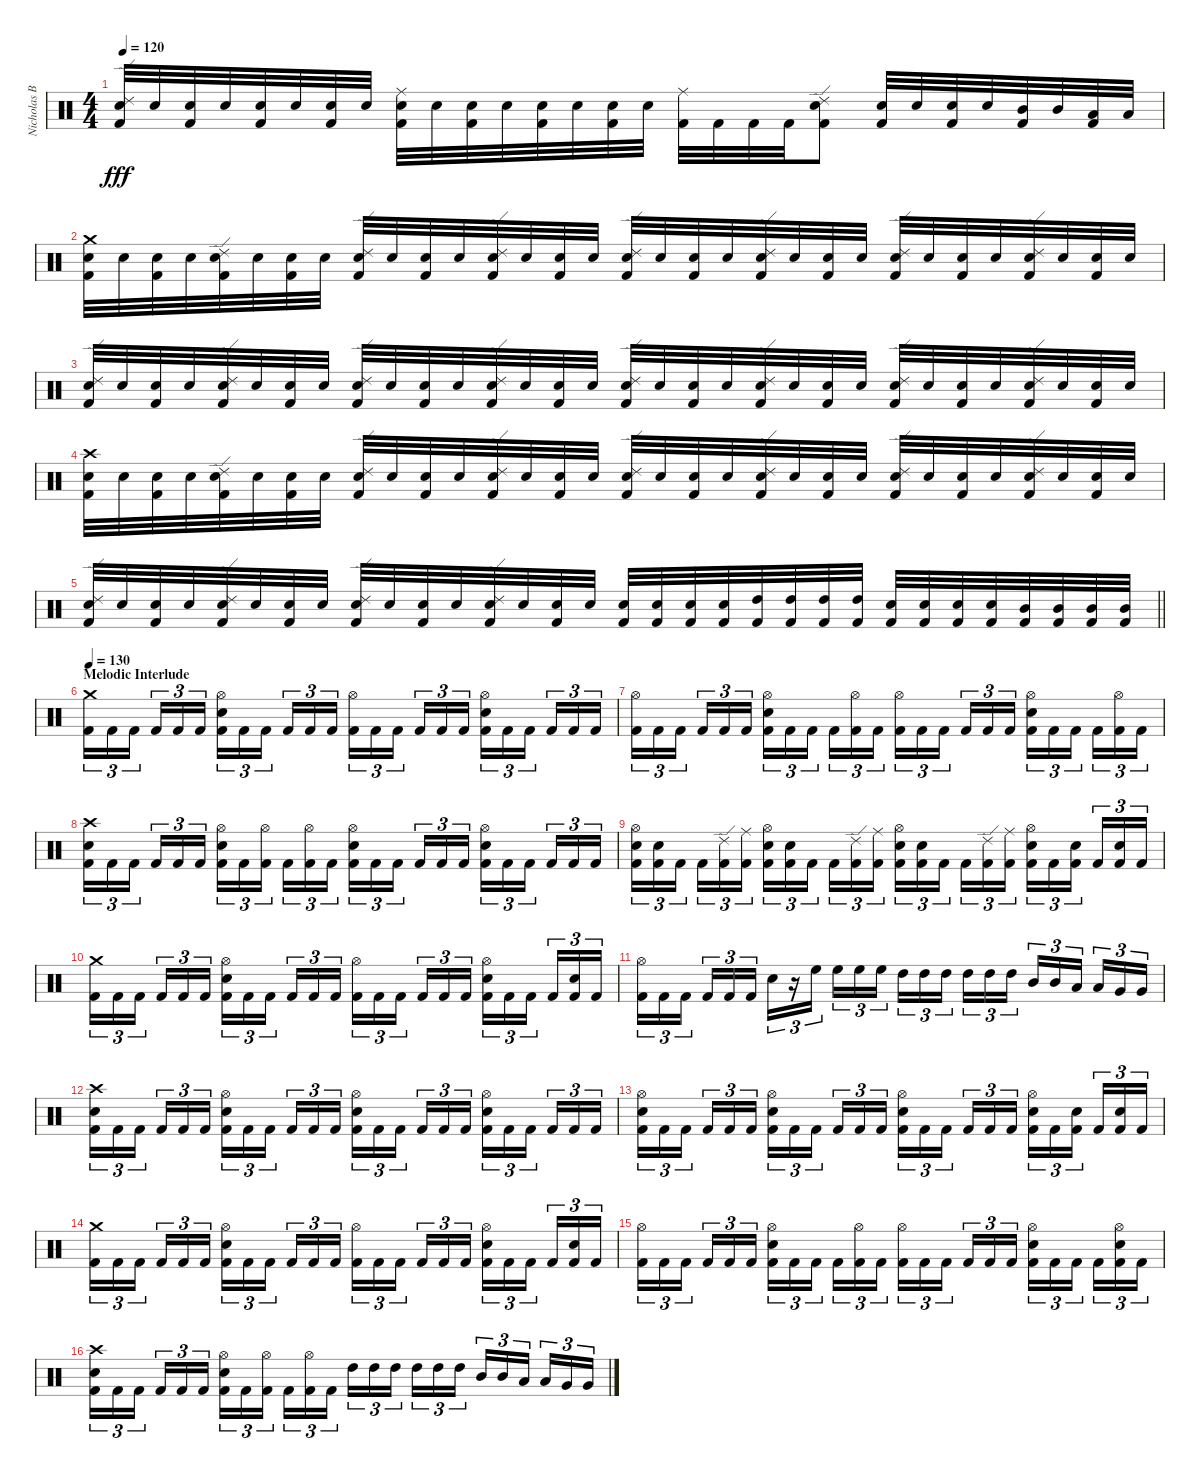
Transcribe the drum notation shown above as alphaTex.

\track ("Nicholas Barker" "Nicholas B") {instrument percussion}
\staff {score}
\articulation defaults
\ts (4 4)
\tempo 120
\clef neutral
\ks c
("Ride (edge) 2" "Snare (hit) 2" "Kick (hit) 2").32{dy fff} "Snare (hit) 2".32 ("Snare (hit) 2" "Kick (hit) 2").32 "Snare (hit) 2".32 ("Snare (hit) 2" "Kick (hit) 2").32 "Snare (hit) 2".32 ("Snare (hit) 2" "Kick (hit) 2").32 "Snare (hit) 2".32 ("Ride (middle)" "Snare (hit) 2" "Kick (hit) 2").32 "Snare (hit) 2".32 ("Snare (hit) 2" "Kick (hit) 2").32 "Snare (hit) 2".32 ("Snare (hit) 2" "Kick (hit) 2").32 "Snare (hit) 2".32 ("Snare (hit) 2" "Kick (hit) 2").32 "Snare (hit) 2".32 ("Ride (middle)" "Kick (hit) 2").32 "Kick (hit) 2".32 "Kick (hit) 2".32 "Kick (hit) 2".32 ("Ride (edge) 2" "Snare (hit) 2" "Kick (hit) 2").8 ("Snare (hit) 2" "Kick (hit) 2").32 "Snare (hit) 2".32 ("Snare (hit) 2" "Kick (hit) 2").32 "Snare (hit) 2".32 ("Mid Tom (hit)" "Kick (hit) 2").32 "Mid Tom (hit)".32 ("Low Tom (hit)" "Kick (hit) 2").32 "Low Tom (hit)".32 |
("Crash medium (hit)" "Snare (hit) 2" "Kick (hit) 2").32 "Snare (hit) 2".32 ("Snare (hit) 2" "Kick (hit) 2").32 "Snare (hit) 2".32 ("Ride (edge) 2" "Snare (hit) 2" "Kick (hit) 2").32 "Snare (hit) 2".32 ("Snare (hit) 2" "Kick (hit) 2").32 "Snare (hit) 2".32 ("Ride (edge) 2" "Snare (hit) 2" "Kick (hit) 2").32 "Snare (hit) 2".32 ("Snare (hit) 2" "Kick (hit) 2").32 "Snare (hit) 2".32 ("Ride (edge) 2" "Snare (hit) 2" "Kick (hit) 2").32 "Snare (hit) 2".32 ("Snare (hit) 2" "Kick (hit) 2").32 "Snare (hit) 2".32 ("Ride (edge) 2" "Snare (hit) 2" "Kick (hit) 2").32 "Snare (hit) 2".32 ("Snare (hit) 2" "Kick (hit) 2").32 "Snare (hit) 2".32 ("Ride (edge) 2" "Snare (hit) 2" "Kick (hit) 2").32 "Snare (hit) 2".32 ("Snare (hit) 2" "Kick (hit) 2").32 "Snare (hit) 2".32 ("Ride (edge) 2" "Snare (hit) 2" "Kick (hit) 2").32 "Snare (hit) 2".32 ("Snare (hit) 2" "Kick (hit) 2").32 "Snare (hit) 2".32 ("Ride (edge) 2" "Snare (hit) 2" "Kick (hit) 2").32 "Snare (hit) 2".32 ("Snare (hit) 2" "Kick (hit) 2").32 "Snare (hit) 2".32 |
("Ride (edge) 2" "Snare (hit) 2" "Kick (hit) 2").32 "Snare (hit) 2".32 ("Snare (hit) 2" "Kick (hit) 2").32 "Snare (hit) 2".32 ("Ride (edge) 2" "Snare (hit) 2" "Kick (hit) 2").32 "Snare (hit) 2".32 ("Snare (hit) 2" "Kick (hit) 2").32 "Snare (hit) 2".32 ("Ride (edge) 2" "Snare (hit) 2" "Kick (hit) 2").32 "Snare (hit) 2".32 ("Snare (hit) 2" "Kick (hit) 2").32 "Snare (hit) 2".32 ("Ride (edge) 2" "Snare (hit) 2" "Kick (hit) 2").32 "Snare (hit) 2".32 ("Snare (hit) 2" "Kick (hit) 2").32 "Snare (hit) 2".32 ("Ride (edge) 2" "Snare (hit) 2" "Kick (hit) 2").32 "Snare (hit) 2".32 ("Snare (hit) 2" "Kick (hit) 2").32 "Snare (hit) 2".32 ("Ride (edge) 2" "Snare (hit) 2" "Kick (hit) 2").32 "Snare (hit) 2".32 ("Snare (hit) 2" "Kick (hit) 2").32 "Snare (hit) 2".32 ("Ride (edge) 2" "Snare (hit) 2" "Kick (hit) 2").32 "Snare (hit) 2".32 ("Snare (hit) 2" "Kick (hit) 2").32 "Snare (hit) 2".32 ("Ride (edge) 2" "Snare (hit) 2" "Kick (hit) 2").32 "Snare (hit) 2".32 ("Snare (hit) 2" "Kick (hit) 2").32 "Snare (hit) 2".32 |
("Crash high (hit)" "Snare (hit) 2" "Kick (hit) 2").32 "Snare (hit) 2".32 ("Snare (hit) 2" "Kick (hit) 2").32 "Snare (hit) 2".32 ("Ride (edge) 2" "Snare (hit) 2" "Kick (hit) 2").32 "Snare (hit) 2".32 ("Snare (hit) 2" "Kick (hit) 2").32 "Snare (hit) 2".32 ("Ride (edge) 2" "Snare (hit) 2" "Kick (hit) 2").32 "Snare (hit) 2".32 ("Snare (hit) 2" "Kick (hit) 2").32 "Snare (hit) 2".32 ("Ride (edge) 2" "Snare (hit) 2" "Kick (hit) 2").32 "Snare (hit) 2".32 ("Snare (hit) 2" "Kick (hit) 2").32 "Snare (hit) 2".32 ("Ride (edge) 2" "Snare (hit) 2" "Kick (hit) 2").32 "Snare (hit) 2".32 ("Snare (hit) 2" "Kick (hit) 2").32 "Snare (hit) 2".32 ("Ride (edge) 2" "Snare (hit) 2" "Kick (hit) 2").32 "Snare (hit) 2".32 ("Snare (hit) 2" "Kick (hit) 2").32 "Snare (hit) 2".32 ("Ride (edge) 2" "Snare (hit) 2" "Kick (hit) 2").32 "Snare (hit) 2".32 ("Snare (hit) 2" "Kick (hit) 2").32 "Snare (hit) 2".32 ("Ride (edge) 2" "Snare (hit) 2" "Kick (hit) 2").32 "Snare (hit) 2".32 ("Snare (hit) 2" "Kick (hit) 2").32 "Snare (hit) 2".32 |
\barLineRight lightlight
("Ride (edge) 2" "Snare (hit) 2" "Kick (hit) 2").32 "Snare (hit) 2".32 ("Snare (hit) 2" "Kick (hit) 2").32 "Snare (hit) 2".32 ("Ride (edge) 2" "Snare (hit) 2" "Kick (hit) 2").32 "Snare (hit) 2".32 ("Snare (hit) 2" "Kick (hit) 2").32 "Snare (hit) 2".32 ("Ride (edge) 2" "Snare (hit) 2" "Kick (hit) 2").32 "Snare (hit) 2".32 ("Snare (hit) 2" "Kick (hit) 2").32 "Snare (hit) 2".32 ("Ride (edge) 2" "Snare (hit) 2" "Kick (hit) 2").32 "Snare (hit) 2".32 ("Snare (hit) 2" "Kick (hit) 2").32 "Snare (hit) 2".32 ("Snare (hit) 2" "Kick (hit) 2").32 ("Snare (hit) 2" "Kick (hit) 2").32 ("Snare (hit) 2" "Kick (hit) 2").32 ("Snare (hit) 2" "Kick (hit) 2").32 ("High Tom (hit)" "Kick (hit) 2").32 ("High Tom (hit)" "Kick (hit) 2").32 ("High Tom (hit)" "Kick (hit) 2").32 ("High Tom (hit)" "Kick (hit) 2").32 ("Snare (hit) 2" "Kick (hit) 2").32 ("Snare (hit) 2" "Kick (hit) 2").32 ("Snare (hit) 2" "Kick (hit) 2").32 ("Snare (hit) 2" "Kick (hit) 2").32 ("Mid Tom (hit)" "Kick (hit) 2").32 ("Mid Tom (hit)" "Kick (hit) 2").32 ("Mid Tom (hit)" "Kick (hit) 2").32 ("Mid Tom (hit)" "Kick (hit) 2").32 |
\section ("" "Melodic Interlude")
\tempo 130
("Crash medium (hit)" "Kick (hit) 2").16{tu (3 2)} "Kick (hit) 2".16{tu (3 2)} "Kick (hit) 2".16{tu (3 2) beam splitsecondary} "Kick (hit) 2".16{tu (3 2)} "Kick (hit) 2".16{tu (3 2)} "Kick (hit) 2".16{tu (3 2)} ("Hi-Hat (open)" "Snare (hit) 2" "Kick (hit) 2").16{tu (3 2)} "Kick (hit) 2".16{tu (3 2)} "Kick (hit) 2".16{tu (3 2) beam splitsecondary} "Kick (hit) 2".16{tu (3 2)} "Kick (hit) 2".16{tu (3 2)} "Kick (hit) 2".16{tu (3 2)} ("Hi-Hat (open)" "Kick (hit) 2").16{tu (3 2)} "Kick (hit) 2".16{tu (3 2)} "Kick (hit) 2".16{tu (3 2) beam splitsecondary} "Kick (hit) 2".16{tu (3 2)} "Kick (hit) 2".16{tu (3 2)} "Kick (hit) 2".16{tu (3 2)} ("Hi-Hat (open)" "Snare (hit) 2" "Kick (hit) 2").16{tu (3 2)} "Kick (hit) 2".16{tu (3 2)} "Kick (hit) 2".16{tu (3 2) beam splitsecondary} "Kick (hit) 2".16{tu (3 2)} "Kick (hit) 2".16{tu (3 2)} "Kick (hit) 2".16{tu (3 2)} |
("Hi-Hat (open)" "Kick (hit) 2").16{tu (3 2)} "Kick (hit) 2".16{tu (3 2)} "Kick (hit) 2".16{tu (3 2) beam splitsecondary} "Kick (hit) 2".16{tu (3 2)} "Kick (hit) 2".16{tu (3 2)} "Kick (hit) 2".16{tu (3 2)} ("Hi-Hat (open)" "Snare (hit) 2" "Kick (hit) 2").16{tu (3 2)} "Kick (hit) 2".16{tu (3 2)} "Kick (hit) 2".16{tu (3 2) beam splitsecondary} "Kick (hit) 2".16{tu (3 2)} ("Hi-Hat (open)" "Kick (hit) 2").16{tu (3 2)} "Kick (hit) 2".16{tu (3 2)} ("Hi-Hat (open)" "Kick (hit) 2").16{tu (3 2)} "Kick (hit) 2".16{tu (3 2)} "Kick (hit) 2".16{tu (3 2) beam splitsecondary} "Kick (hit) 2".16{tu (3 2)} "Kick (hit) 2".16{tu (3 2)} "Kick (hit) 2".16{tu (3 2)} ("Hi-Hat (open)" "Snare (hit) 2" "Kick (hit) 2").16{tu (3 2)} "Kick (hit) 2".16{tu (3 2)} "Kick (hit) 2".16{tu (3 2) beam splitsecondary} "Kick (hit) 2".16{tu (3 2)} ("Hi-Hat (open)" "Kick (hit) 2").16{tu (3 2)} "Kick (hit) 2".16{tu (3 2)} |
("Crash high (hit)" "Snare (hit) 2" "Kick (hit) 2").16{tu (3 2)} "Kick (hit) 2".16{tu (3 2)} "Kick (hit) 2".16{tu (3 2) beam splitsecondary} "Kick (hit) 2".16{tu (3 2)} "Kick (hit) 2".16{tu (3 2)} "Kick (hit) 2".16{tu (3 2)} ("Hi-Hat (open)" "Snare (hit) 2" "Kick (hit) 2").16{tu (3 2)} "Kick (hit) 2".16{tu (3 2)} ("Hi-Hat (open)" "Kick (hit) 2").16{tu (3 2) beam splitsecondary} "Kick (hit) 2".16{tu (3 2)} ("Hi-Hat (open)" "Kick (hit) 2").16{tu (3 2)} "Kick (hit) 2".16{tu (3 2)} ("Hi-Hat (open)" "Snare (hit) 2" "Kick (hit) 2").16{tu (3 2)} "Kick (hit) 2".16{tu (3 2)} "Kick (hit) 2".16{tu (3 2) beam splitsecondary} "Kick (hit) 2".16{tu (3 2)} "Kick (hit) 2".16{tu (3 2)} "Kick (hit) 2".16{tu (3 2)} ("Hi-Hat (open)" "Snare (hit) 2" "Kick (hit) 2").16{tu (3 2)} "Kick (hit) 2".16{tu (3 2)} "Kick (hit) 2".16{tu (3 2) beam splitsecondary} "Kick (hit) 2".16{tu (3 2)} "Kick (hit) 2".16{tu (3 2)} "Kick (hit) 2".16{tu (3 2)} |
("Hi-Hat (open)" "Snare (hit) 2" "Kick (hit) 2").16{tu (3 2)} ("Snare (hit) 2" "Kick (hit) 2").16{tu (3 2)} "Kick (hit) 2".16{tu (3 2) beam splitsecondary} "Kick (hit) 2".16{tu (3 2)} ("Ride (edge) 2" "Kick (hit) 2").16{tu (3 2)} ("Ride (middle)" "Kick (hit) 2").16{tu (3 2)} ("Hi-Hat (open)" "Snare (hit) 2" "Kick (hit) 2").16{tu (3 2)} ("Snare (hit) 2" "Kick (hit) 2").16{tu (3 2)} "Kick (hit) 2".16{tu (3 2) beam splitsecondary} "Kick (hit) 2".16{tu (3 2)} ("Ride (edge) 2" "Kick (hit) 2").16{tu (3 2)} ("Ride (middle)" "Kick (hit) 2").16{tu (3 2)} ("Hi-Hat (open)" "Snare (hit) 2" "Kick (hit) 2").16{tu (3 2)} ("Snare (hit) 2" "Kick (hit) 2").16{tu (3 2)} "Kick (hit) 2".16{tu (3 2) beam splitsecondary} "Kick (hit) 2".16{tu (3 2)} ("Ride (edge) 2" "Kick (hit) 2").16{tu (3 2)} ("Ride (middle)" "Kick (hit) 2").16{tu (3 2)} ("Hi-Hat (open)" "Snare (hit) 2" "Kick (hit) 2").16{tu (3 2)} "Kick (hit) 2".16{tu (3 2)} ("Snare (hit) 2" "Kick (hit) 2").16{tu (3 2) beam splitsecondary} "Kick (hit) 2".16{tu (3 2)} ("Snare (hit) 2" "Kick (hit) 2").16{tu (3 2)} "Kick (hit) 2".16{tu (3 2)} |
("Crash medium (hit)" "Kick (hit) 2").16{tu (3 2)} "Kick (hit) 2".16{tu (3 2)} "Kick (hit) 2".16{tu (3 2) beam splitsecondary} "Kick (hit) 2".16{tu (3 2)} "Kick (hit) 2".16{tu (3 2)} "Kick (hit) 2".16{tu (3 2)} ("Hi-Hat (open)" "Snare (hit) 2" "Kick (hit) 2").16{tu (3 2)} "Kick (hit) 2".16{tu (3 2)} "Kick (hit) 2".16{tu (3 2) beam splitsecondary} "Kick (hit) 2".16{tu (3 2)} "Kick (hit) 2".16{tu (3 2)} "Kick (hit) 2".16{tu (3 2)} ("Hi-Hat (open)" "Kick (hit) 2").16{tu (3 2)} "Kick (hit) 2".16{tu (3 2)} "Kick (hit) 2".16{tu (3 2) beam splitsecondary} "Kick (hit) 2".16{tu (3 2)} "Kick (hit) 2".16{tu (3 2)} "Kick (hit) 2".16{tu (3 2)} ("Hi-Hat (open)" "Snare (hit) 2" "Kick (hit) 2").16{tu (3 2)} "Kick (hit) 2".16{tu (3 2)} "Kick (hit) 2".16{tu (3 2) beam splitsecondary} "Kick (hit) 2".16{tu (3 2)} ("Snare (hit) 2" "Kick (hit) 2").16{tu (3 2)} "Kick (hit) 2".16{tu (3 2)} |
("Hi-Hat (open)" "Kick (hit) 2").16{tu (3 2)} "Kick (hit) 2".16{tu (3 2)} "Kick (hit) 2".16{tu (3 2) beam splitsecondary} "Kick (hit) 2".16{tu (3 2)} "Kick (hit) 2".16{tu (3 2)} "Kick (hit) 2".16{tu (3 2)} "Snare (hit) 2".16{tu (3 2)} r.16{tu (3 2)} "High Floor Tom (hit)".16{tu (3 2) beam splitsecondary} "High Floor Tom (hit)".16{tu (3 2)} "High Floor Tom (hit)".16{tu (3 2)} "High Floor Tom (hit)".16{tu (3 2)} "High Tom (hit)".16{tu (3 2)} "High Tom (hit)".16{tu (3 2)} "High Tom (hit)".16{tu (3 2) beam splitsecondary} "High Tom (hit)".16{tu (3 2)} "High Tom (hit)".16{tu (3 2)} "High Tom (hit)".16{tu (3 2)} "Mid Tom (hit)".16{tu (3 2)} "Mid Tom (hit)".16{tu (3 2)} "Low Tom (hit)".16{tu (3 2) beam splitsecondary} "Low Tom (hit)".16{tu (3 2)} "Very Low Tom (hit)".16{tu (3 2)} "Very Low Tom (hit)".16{tu (3 2)} |
("Crash high (hit)" "Snare (hit) 2" "Kick (hit) 2").16{tu (3 2)} "Kick (hit) 2".16{tu (3 2)} "Kick (hit) 2".16{tu (3 2) beam splitsecondary} "Kick (hit) 2".16{tu (3 2)} "Kick (hit) 2".16{tu (3 2)} "Kick (hit) 2".16{tu (3 2)} ("Hi-Hat (open)" "Snare (hit) 2" "Kick (hit) 2").16{tu (3 2)} "Kick (hit) 2".16{tu (3 2)} "Kick (hit) 2".16{tu (3 2) beam splitsecondary} "Kick (hit) 2".16{tu (3 2)} "Kick (hit) 2".16{tu (3 2)} "Kick (hit) 2".16{tu (3 2)} ("Hi-Hat (open)" "Snare (hit) 2" "Kick (hit) 2").16{tu (3 2)} "Kick (hit) 2".16{tu (3 2)} "Kick (hit) 2".16{tu (3 2) beam splitsecondary} "Kick (hit) 2".16{tu (3 2)} "Kick (hit) 2".16{tu (3 2)} "Kick (hit) 2".16{tu (3 2)} ("Hi-Hat (open)" "Snare (hit) 2" "Kick (hit) 2").16{tu (3 2)} "Kick (hit) 2".16{tu (3 2)} "Kick (hit) 2".16{tu (3 2) beam splitsecondary} "Kick (hit) 2".16{tu (3 2)} "Kick (hit) 2".16{tu (3 2)} "Kick (hit) 2".16{tu (3 2)} |
("Hi-Hat (open)" "Snare (hit) 2" "Kick (hit) 2").16{tu (3 2)} "Kick (hit) 2".16{tu (3 2)} "Kick (hit) 2".16{tu (3 2) beam splitsecondary} "Kick (hit) 2".16{tu (3 2)} "Kick (hit) 2".16{tu (3 2)} "Kick (hit) 2".16{tu (3 2)} ("Hi-Hat (open)" "Snare (hit) 2" "Kick (hit) 2").16{tu (3 2)} "Kick (hit) 2".16{tu (3 2)} "Kick (hit) 2".16{tu (3 2) beam splitsecondary} "Kick (hit) 2".16{tu (3 2)} "Kick (hit) 2".16{tu (3 2)} "Kick (hit) 2".16{tu (3 2)} ("Hi-Hat (open)" "Snare (hit) 2" "Kick (hit) 2").16{tu (3 2)} "Kick (hit) 2".16{tu (3 2)} "Kick (hit) 2".16{tu (3 2) beam splitsecondary} "Kick (hit) 2".16{tu (3 2)} "Kick (hit) 2".16{tu (3 2)} "Kick (hit) 2".16{tu (3 2)} ("Hi-Hat (open)" "Snare (hit) 2" "Kick (hit) 2").16{tu (3 2)} "Kick (hit) 2".16{tu (3 2)} ("Snare (hit) 2" "Kick (hit) 2").16{tu (3 2) beam splitsecondary} "Kick (hit) 2".16{tu (3 2)} ("Snare (hit) 2" "Kick (hit) 2").16{tu (3 2)} "Kick (hit) 2".16{tu (3 2)} |
("Crash medium (hit)" "Kick (hit) 2").16{tu (3 2)} "Kick (hit) 2".16{tu (3 2)} "Kick (hit) 2".16{tu (3 2) beam splitsecondary} "Kick (hit) 2".16{tu (3 2)} "Kick (hit) 2".16{tu (3 2)} "Kick (hit) 2".16{tu (3 2)} ("Hi-Hat (open)" "Snare (hit) 2" "Kick (hit) 2").16{tu (3 2)} "Kick (hit) 2".16{tu (3 2)} "Kick (hit) 2".16{tu (3 2) beam splitsecondary} "Kick (hit) 2".16{tu (3 2)} "Kick (hit) 2".16{tu (3 2)} "Kick (hit) 2".16{tu (3 2)} ("Hi-Hat (open)" "Kick (hit) 2").16{tu (3 2)} "Kick (hit) 2".16{tu (3 2)} "Kick (hit) 2".16{tu (3 2) beam splitsecondary} "Kick (hit) 2".16{tu (3 2)} "Kick (hit) 2".16{tu (3 2)} "Kick (hit) 2".16{tu (3 2)} ("Hi-Hat (open)" "Snare (hit) 2" "Kick (hit) 2").16{tu (3 2)} "Kick (hit) 2".16{tu (3 2)} "Kick (hit) 2".16{tu (3 2) beam splitsecondary} "Kick (hit) 2".16{tu (3 2)} ("Snare (hit) 2" "Kick (hit) 2").16{tu (3 2)} "Kick (hit) 2".16{tu (3 2)} |
("Hi-Hat (open)" "Kick (hit) 2").16{tu (3 2)} "Kick (hit) 2".16{tu (3 2)} "Kick (hit) 2".16{tu (3 2) beam splitsecondary} "Kick (hit) 2".16{tu (3 2)} "Kick (hit) 2".16{tu (3 2)} "Kick (hit) 2".16{tu (3 2)} ("Hi-Hat (open)" "Snare (hit) 2" "Kick (hit) 2").16{tu (3 2)} "Kick (hit) 2".16{tu (3 2)} "Kick (hit) 2".16{tu (3 2) beam splitsecondary} "Kick (hit) 2".16{tu (3 2)} ("Hi-Hat (open)" "Kick (hit) 2").16{tu (3 2)} "Kick (hit) 2".16{tu (3 2)} ("Hi-Hat (open)" "Kick (hit) 2").16{tu (3 2)} "Kick (hit) 2".16{tu (3 2)} "Kick (hit) 2".16{tu (3 2) beam splitsecondary} "Kick (hit) 2".16{tu (3 2)} "Kick (hit) 2".16{tu (3 2)} "Kick (hit) 2".16{tu (3 2)} ("Hi-Hat (open)" "Snare (hit) 2" "Kick (hit) 2").16{tu (3 2)} "Kick (hit) 2".16{tu (3 2)} "Kick (hit) 2".16{tu (3 2) beam splitsecondary} "Kick (hit) 2".16{tu (3 2)} ("Hi-Hat (open)" "Snare (hit) 2" "Kick (hit) 2").16{tu (3 2)} "Kick (hit) 2".16{tu (3 2)} |
("Crash high (hit)" "Snare (hit) 2" "Kick (hit) 2").16{tu (3 2)} "Kick (hit) 2".16{tu (3 2)} "Kick (hit) 2".16{tu (3 2) beam splitsecondary} "Kick (hit) 2".16{tu (3 2)} "Kick (hit) 2".16{tu (3 2)} "Kick (hit) 2".16{tu (3 2)} ("Hi-Hat (open)" "Snare (hit) 2" "Kick (hit) 2").16{tu (3 2)} "Kick (hit) 2".16{tu (3 2)} ("Hi-Hat (open)" "Kick (hit) 2").16{tu (3 2) beam splitsecondary} "Kick (hit) 2".16{tu (3 2)} ("Hi-Hat (open)" "Kick (hit) 2").16{tu (3 2)} "Kick (hit) 2".16{tu (3 2)} "High Tom (hit)".16{tu (3 2)} "High Tom (hit)".16{tu (3 2)} "High Tom (hit)".16{tu (3 2) beam splitsecondary} "High Tom (hit)".16{tu (3 2)} "High Tom (hit)".16{tu (3 2)} "High Tom (hit)".16{tu (3 2)} "Mid Tom (hit)".16{tu (3 2)} "Mid Tom (hit)".16{tu (3 2)} "Low Tom (hit)".16{tu (3 2) beam splitsecondary} "Low Tom (hit)".16{tu (3 2)} "Very Low Tom (hit)".16{tu (3 2)} "Very Low Tom (hit)".16{tu (3 2)}
